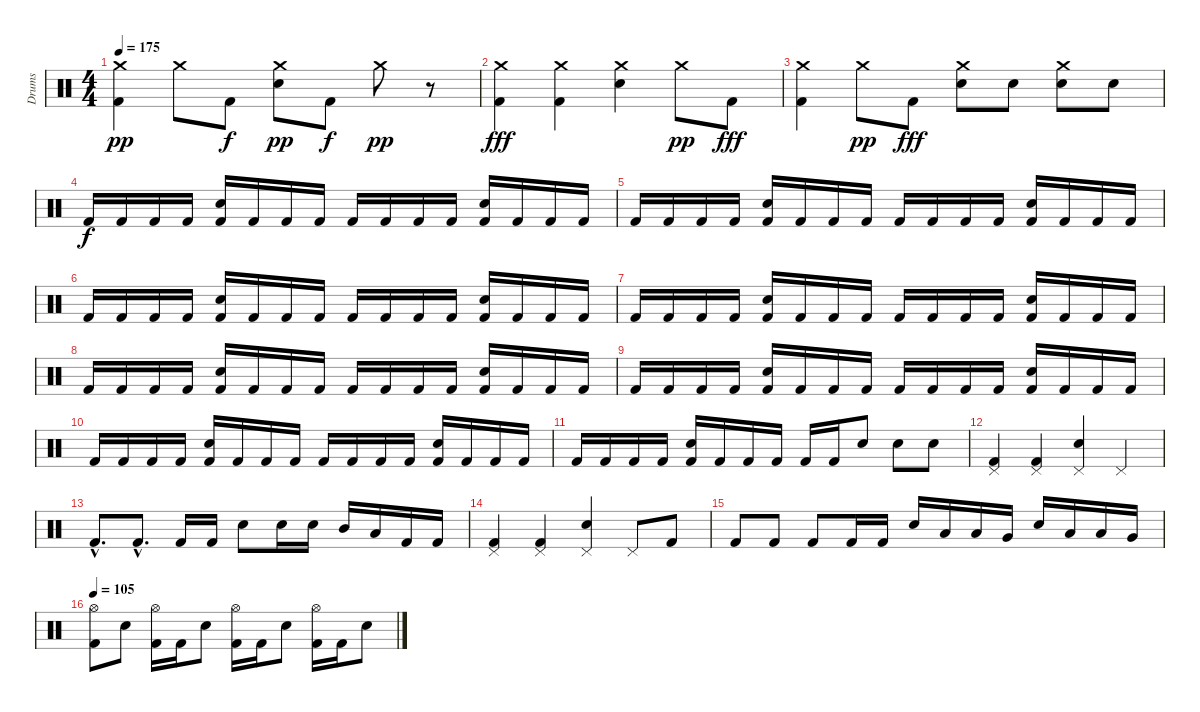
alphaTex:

\track ("Drums" "Drums") {instrument percussion}
\staff {score}
\articulation defaults
\ts (4 4)
\tempo 175
\clef neutral
\ks c
("Crash medium (hit)" "Kick (hit) 2").4{dy pp} "Crash medium (hit)".8 "Kick (hit) 2".8{dy f} ("Crash medium (hit)" "Electric Snare (hit)").8{dy pp} "Kick (hit) 2".8{dy f} "Crash medium (hit)".8{dy pp} r.8 |
("Crash medium (hit)" "Kick (hit) 2").4{dy fff} ("Crash medium (hit)" "Kick (hit) 2").4 ("Crash medium (hit)" "Electric Snare (hit)").4 "Crash medium (hit)".8{dy pp} "Kick (hit) 2".8{dy fff} |
("Crash medium (hit)" "Kick (hit) 2").4 "Crash medium (hit)".8{dy pp} "Kick (hit) 2".8{dy fff} ("Crash medium (hit)" "Electric Snare (hit)").8 "Electric Snare (hit)".8 ("Crash medium (hit)" "Electric Snare (hit)").8 "Electric Snare (hit)".8 |
"Kick (hit) 2".16{dy f} "Kick (hit) 2".16 "Kick (hit) 2".16 "Kick (hit) 2".16 ("Electric Snare (hit)" "Kick (hit) 2").16 "Kick (hit) 2".16 "Kick (hit) 2".16 "Kick (hit) 2".16 "Kick (hit) 2".16 "Kick (hit) 2".16 "Kick (hit) 2".16 "Kick (hit) 2".16 ("Electric Snare (hit)" "Kick (hit) 2").16 "Kick (hit) 2".16 "Kick (hit) 2".16 "Kick (hit) 2".16 |
"Kick (hit) 2".16 "Kick (hit) 2".16 "Kick (hit) 2".16 "Kick (hit) 2".16 ("Electric Snare (hit)" "Kick (hit) 2").16 "Kick (hit) 2".16 "Kick (hit) 2".16 "Kick (hit) 2".16 "Kick (hit) 2".16 "Kick (hit) 2".16 "Kick (hit) 2".16 "Kick (hit) 2".16 ("Electric Snare (hit)" "Kick (hit) 2").16 "Kick (hit) 2".16 "Kick (hit) 2".16 "Kick (hit) 2".16 |
"Kick (hit) 2".16 "Kick (hit) 2".16 "Kick (hit) 2".16 "Kick (hit) 2".16 ("Electric Snare (hit)" "Kick (hit) 2").16 "Kick (hit) 2".16 "Kick (hit) 2".16 "Kick (hit) 2".16 "Kick (hit) 2".16 "Kick (hit) 2".16 "Kick (hit) 2".16 "Kick (hit) 2".16 ("Electric Snare (hit)" "Kick (hit) 2").16 "Kick (hit) 2".16 "Kick (hit) 2".16 "Kick (hit) 2".16 |
"Kick (hit) 2".16 "Kick (hit) 2".16 "Kick (hit) 2".16 "Kick (hit) 2".16 ("Electric Snare (hit)" "Kick (hit) 2").16 "Kick (hit) 2".16 "Kick (hit) 2".16 "Kick (hit) 2".16 "Kick (hit) 2".16 "Kick (hit) 2".16 "Kick (hit) 2".16 "Kick (hit) 2".16 ("Electric Snare (hit)" "Kick (hit) 2").16 "Kick (hit) 2".16 "Kick (hit) 2".16 "Kick (hit) 2".16 |
"Kick (hit) 2".16 "Kick (hit) 2".16 "Kick (hit) 2".16 "Kick (hit) 2".16 ("Electric Snare (hit)" "Kick (hit) 2").16 "Kick (hit) 2".16 "Kick (hit) 2".16 "Kick (hit) 2".16 "Kick (hit) 2".16 "Kick (hit) 2".16 "Kick (hit) 2".16 "Kick (hit) 2".16 ("Electric Snare (hit)" "Kick (hit) 2").16 "Kick (hit) 2".16 "Kick (hit) 2".16 "Kick (hit) 2".16 |
"Kick (hit) 2".16 "Kick (hit) 2".16 "Kick (hit) 2".16 "Kick (hit) 2".16 ("Electric Snare (hit)" "Kick (hit) 2").16 "Kick (hit) 2".16 "Kick (hit) 2".16 "Kick (hit) 2".16 "Kick (hit) 2".16 "Kick (hit) 2".16 "Kick (hit) 2".16 "Kick (hit) 2".16 ("Electric Snare (hit)" "Kick (hit) 2").16 "Kick (hit) 2".16 "Kick (hit) 2".16 "Kick (hit) 2".16 |
"Kick (hit) 2".16 "Kick (hit) 2".16 "Kick (hit) 2".16 "Kick (hit) 2".16 ("Electric Snare (hit)" "Kick (hit) 2").16 "Kick (hit) 2".16 "Kick (hit) 2".16 "Kick (hit) 2".16 "Kick (hit) 2".16 "Kick (hit) 2".16 "Kick (hit) 2".16 "Kick (hit) 2".16 ("Electric Snare (hit)" "Kick (hit) 2").16 "Kick (hit) 2".16 "Kick (hit) 2".16 "Kick (hit) 2".16 |
"Kick (hit) 2".16 "Kick (hit) 2".16 "Kick (hit) 2".16 "Kick (hit) 2".16 ("Electric Snare (hit)" "Kick (hit) 2").16 "Kick (hit) 2".16 "Kick (hit) 2".16 "Kick (hit) 2".16 "Kick (hit) 2".16 "Kick (hit) 2".16 "Electric Snare (hit)".8 "Electric Snare (hit)".8 "Electric Snare (hit)".8 |
("Pedal Hi-Hat (hit)" "Kick (hit) 2").4 ("Pedal Hi-Hat (hit)" "Kick (hit) 2").4 ("Pedal Hi-Hat (hit)" "Electric Snare (hit)").4 "Pedal Hi-Hat (hit)".4 |
"Kick (hit) 2"{hac}.8{d} "Kick (hit) 2"{hac}.8{d} "Kick (hit) 2".16 "Kick (hit) 2".16 "Electric Snare (hit)".8 "Electric Snare (hit)".16 "Electric Snare (hit)".16 "Mid Tom (hit)".16 "Low Tom (hit)".16 "Kick (hit) 2".16 "Kick (hit) 2".16 |
("Pedal Hi-Hat (hit)" "Kick (hit) 2").4 ("Pedal Hi-Hat (hit)" "Kick (hit) 2").4 ("Pedal Hi-Hat (hit)" "Electric Snare (hit)").4 "Pedal Hi-Hat (hit)".8 "Kick (hit) 2".8 |
"Kick (hit) 2".8 "Kick (hit) 2".8 "Kick (hit) 2".8 "Kick (hit) 2".16 "Kick (hit) 2".16 "Electric Snare (hit)".16 "Low Tom (hit)".16 "Low Tom (hit)".16 "Very Low Tom (hit)".16 "Electric Snare (hit)".16 "Low Tom (hit)".16 "Low Tom (hit)".16 "Very Low Tom (hit)".16 |
\tempo 105
("Hi-Hat (open)" "Kick (hit) 2").8 "Electric Snare (hit)".8 ("Hi-Hat (open)" "Kick (hit) 2").16 "Kick (hit) 2".16 "Electric Snare (hit)".8 ("Hi-Hat (open)" "Kick (hit) 2").16 "Kick (hit) 2".16 "Electric Snare (hit)".8 ("Hi-Hat (open)" "Kick (hit) 2").16 "Kick (hit) 2".16 "Electric Snare (hit)".8
